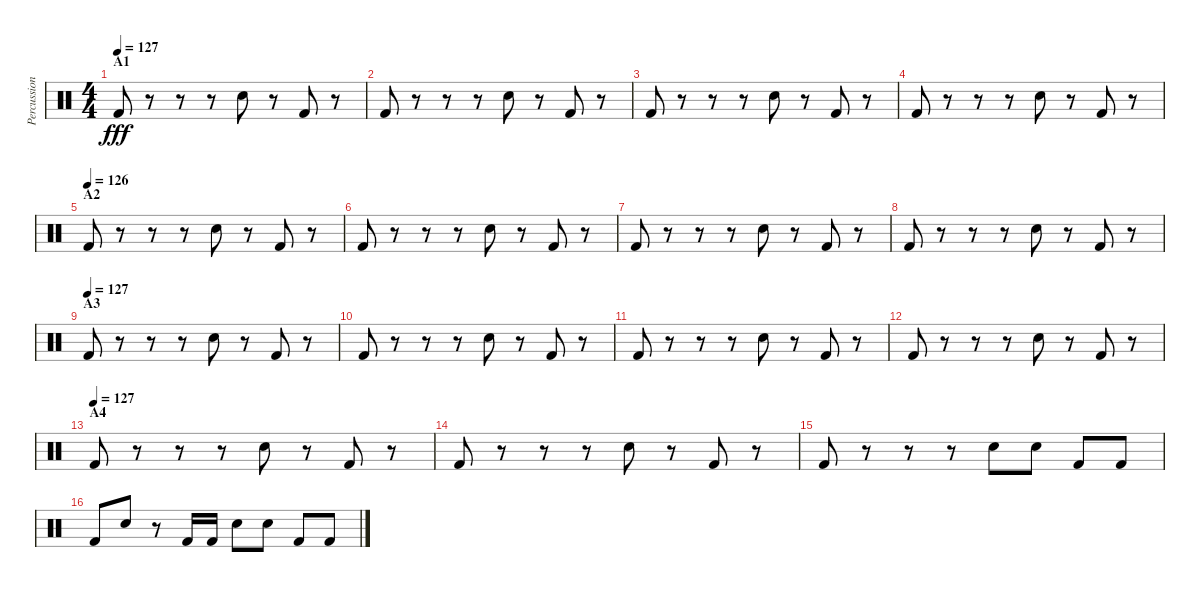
\track ("Percussion" "Percussion") {instrument percussion}
\staff {score}
\articulation defaults
\ts (4 4)
\section ("" "A1")
\tempo 127
\tempo 126
\tempo 127
\clef neutral
\ks c "Kick (hit) 2".8{dy fff}
r.8 r.8 r.8 "Electric Snare (hit)".8 r.8 "Kick (hit) 2".8 r.8 |
"Kick (hit) 2".8 r.8 r.8 r.8 "Electric Snare (hit)".8 r.8 "Kick (hit) 2".8 r.8 |
"Kick (hit) 2".8 r.8 r.8 r.8 "Electric Snare (hit)".8 r.8 "Kick (hit) 2".8 r.8 |
"Kick (hit) 2".8 r.8 r.8 r.8 "Electric Snare (hit)".8 r.8 "Kick (hit) 2".8 r.8 |
\section ("" "A2")
\tempo (126)
"Kick (hit) 2".8 r.8 r.8 r.8 "Electric Snare (hit)".8 r.8 "Kick (hit) 2".8 r.8 |
"Kick (hit) 2".8 r.8 r.8 r.8 "Electric Snare (hit)".8 r.8 "Kick (hit) 2".8 r.8 |
"Kick (hit) 2".8 r.8 r.8 r.8 "Electric Snare (hit)".8 r.8 "Kick (hit) 2".8 r.8 |
"Kick (hit) 2".8 r.8 r.8 r.8 "Electric Snare (hit)".8 r.8 "Kick (hit) 2".8 r.8 |
\section ("" "A3")
\tempo (127)
"Kick (hit) 2".8 r.8 r.8 r.8 "Electric Snare (hit)".8 r.8 "Kick (hit) 2".8 r.8 |
"Kick (hit) 2".8 r.8 r.8 r.8 "Electric Snare (hit)".8 r.8 "Kick (hit) 2".8 r.8 |
"Kick (hit) 2".8 r.8 r.8 r.8 "Electric Snare (hit)".8 r.8 "Kick (hit) 2".8 r.8 |
"Kick (hit) 2".8 r.8 r.8 r.8 "Electric Snare (hit)".8 r.8 "Kick (hit) 2".8 r.8 |
\section ("" "A4")
\tempo (127)
"Kick (hit) 2".8 r.8 r.8 r.8 "Electric Snare (hit)".8 r.8 "Kick (hit) 2".8 r.8 |
"Kick (hit) 2".8 r.8 r.8 r.8 "Electric Snare (hit)".8 r.8 "Kick (hit) 2".8 r.8 |
"Kick (hit) 2".8 r.8 r.8 r.8 "Electric Snare (hit)".8 "Electric Snare (hit)".8 "Kick (hit) 2".8 "Kick (hit) 2".8 |
"Kick (hit) 2".8 "Electric Snare (hit)".8 r.8 "Kick (hit) 2".16 "Kick (hit) 2".16 "Electric Snare (hit)".8 "Electric Snare (hit)".8 "Kick (hit) 2".8 "Kick (hit) 2".8
